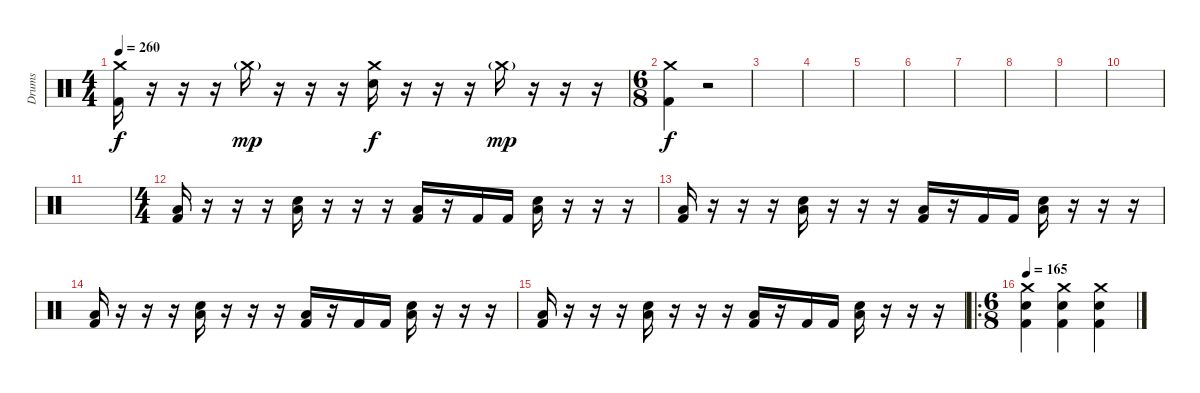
\track ("Drums" "Drums") {instrument percussion}
\staff {score}
\articulation defaults
\ts (4 4)
\tempo 260
\clef neutral
\ks c
("Crash medium (hit)" "Kick (hit) 2").16{dy f} r.16 r.16 r.16 "Crash medium (hit)"{g}.16{dy mp} r.16 r.16 r.16 ("Crash medium (hit)" "Snare (hit) 2").16{dy f} r.16 r.16 r.16 "Crash medium (hit)"{g}.16{dy mp} r.16 r.16 r.16 |
\ts (6 8)
("Kick (hit) 2" "Crash medium (hit)").4{dy f} r.2 |
|
|
|
|
|
|
|
|
|
\ts (4 4)
("Low Floor Tom (hit)" "Kick (hit) 2").16 r.16 r.16 r.16 ("Low Floor Tom (hit)" "Snare (hit) 2").16 r.16 r.16 r.16 ("Low Floor Tom (hit)" "Kick (hit) 2").16 r.16 "Kick (hit) 2".16 "Kick (hit) 2".16 ("Low Floor Tom (hit)" "Snare (hit) 2").16 r.16 r.16 r.16 |
("Low Floor Tom (hit)" "Kick (hit) 2").16 r.16 r.16 r.16 ("Low Floor Tom (hit)" "Snare (hit) 2").16 r.16 r.16 r.16 ("Low Floor Tom (hit)" "Kick (hit) 2").16 r.16 "Kick (hit) 2".16 "Kick (hit) 2".16 ("Low Floor Tom (hit)" "Snare (hit) 2").16 r.16 r.16 r.16 |
("Low Floor Tom (hit)" "Kick (hit) 2").16 r.16 r.16 r.16 ("Low Floor Tom (hit)" "Snare (hit) 2").16 r.16 r.16 r.16 ("Low Floor Tom (hit)" "Kick (hit) 2").16 r.16 "Kick (hit) 2".16 "Kick (hit) 2".16 ("Low Floor Tom (hit)" "Snare (hit) 2").16 r.16 r.16 r.16 |
("Low Floor Tom (hit)" "Kick (hit) 2").16 r.16 r.16 r.16 ("Low Floor Tom (hit)" "Snare (hit) 2").16 r.16 r.16 r.16 ("Low Floor Tom (hit)" "Kick (hit) 2").16 r.16 "Kick (hit) 2".16 "Kick (hit) 2".16 ("Low Floor Tom (hit)" "Snare (hit) 2").16 r.16 r.16 r.16 |
\ro
\ts (6 8)
\tempo 165
("Crash medium (hit)" "Snare (hit) 2" "Kick (hit) 2").4 ("Crash medium (hit)" "Snare (hit) 2" "Kick (hit) 2").4 ("Crash medium (hit)" "Snare (hit) 2" "Kick (hit) 2").4
